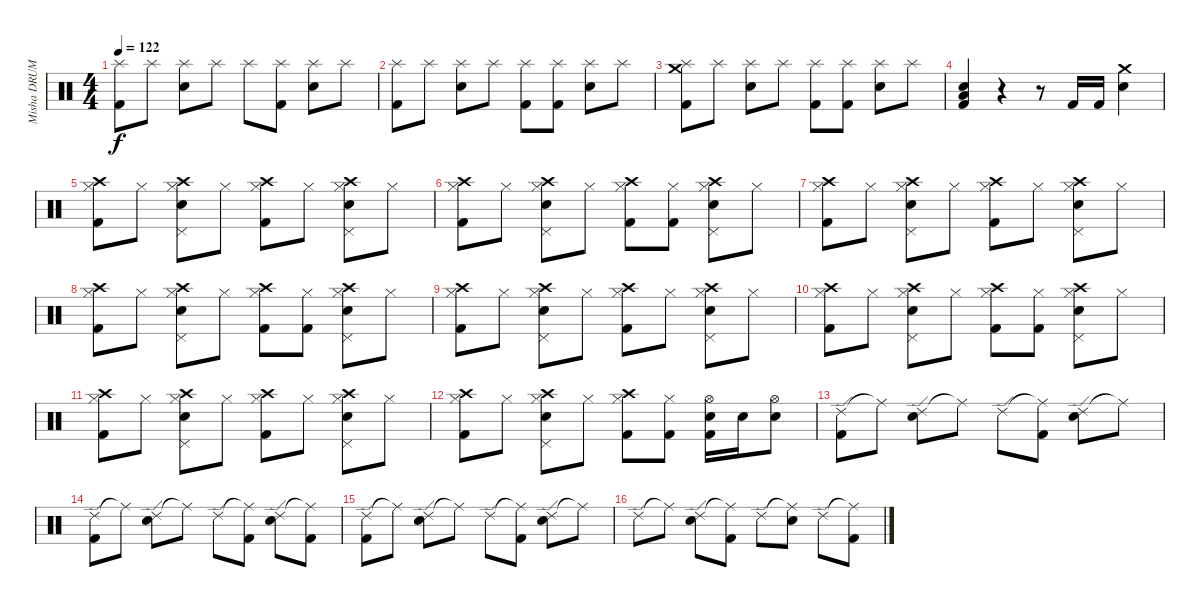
\track ("Misha DRUMS" "Misha DRUM") {instrument percussion}
\staff {score}
\articulation defaults
\ts (4 4)
\tempo 122
\clef neutral
\ks c
("Splash (hit)" "Kick (hit) 2").8{dy f} "Splash (hit)".8 ("Splash (hit)" "Snare (hit) 2").8 "Splash (hit)".8 "Splash (hit)".8 ("Splash (hit)" "Kick (hit) 2").8 ("Splash (hit)" "Snare (hit) 2").8 "Splash (hit)".8 |
("Splash (hit)" "Kick (hit) 2").8 "Splash (hit)".8 ("Splash (hit)" "Snare (hit) 2").8 "Splash (hit)".8 ("Splash (hit)" "Kick (hit) 2").8 ("Splash (hit)" "Kick (hit) 2").8 ("Splash (hit)" "Snare (hit) 2").8 "Splash (hit)".8 |
("Splash (hit)" "Crash medium (hit)" "Kick (hit) 2").8 "Splash (hit)".8 ("Splash (hit)" "Snare (hit) 2").8 "Splash (hit)".8 ("Splash (hit)" "Kick (hit) 2").8 ("Splash (hit)" "Kick (hit) 2").8 ("Splash (hit)" "Snare (hit) 2").8 "Splash (hit)".8 |
("Low Floor Tom (hit)" "Snare (hit) 2" "Kick (hit) 2").4 r.4 r.8 "Kick (hit) 2".16 "Kick (hit) 2".16 ("Crash medium (hit)" "Snare (hit) 2").4 |
("Hi-Hat (closed)" "Crash high (hit)" "Kick (hit) 2").8 "Hi-Hat (closed)".8 ("Hi-Hat (closed)" "Crash high (hit)" "Pedal Hi-Hat (hit)" "Snare (hit) 2").8 "Hi-Hat (closed)".8 ("Hi-Hat (closed)" "Crash high (hit)" "Kick (hit) 2").8 "Hi-Hat (closed)".8 ("Hi-Hat (closed)" "Crash high (hit)" "Pedal Hi-Hat (hit)" "Snare (hit) 2").8 "Hi-Hat (closed)".8 |
("Hi-Hat (closed)" "Crash high (hit)" "Kick (hit) 2").8 "Hi-Hat (closed)".8 ("Hi-Hat (closed)" "Crash high (hit)" "Pedal Hi-Hat (hit)" "Snare (hit) 2").8 "Hi-Hat (closed)".8 ("Hi-Hat (closed)" "Crash high (hit)" "Kick (hit) 2").8 ("Hi-Hat (closed)" "Kick (hit) 2").8 ("Hi-Hat (closed)" "Crash high (hit)" "Pedal Hi-Hat (hit)" "Snare (hit) 2").8 "Hi-Hat (closed)".8 |
("Hi-Hat (closed)" "Crash high (hit)" "Kick (hit) 2").8 "Hi-Hat (closed)".8 ("Hi-Hat (closed)" "Crash high (hit)" "Pedal Hi-Hat (hit)" "Snare (hit) 2").8 "Hi-Hat (closed)".8 ("Hi-Hat (closed)" "Crash high (hit)" "Kick (hit) 2").8 "Hi-Hat (closed)".8 ("Hi-Hat (closed)" "Crash high (hit)" "Pedal Hi-Hat (hit)" "Snare (hit) 2").8 "Hi-Hat (closed)".8 |
("Hi-Hat (closed)" "Crash high (hit)" "Kick (hit) 2").8 "Hi-Hat (closed)".8 ("Hi-Hat (closed)" "Crash high (hit)" "Pedal Hi-Hat (hit)" "Snare (hit) 2").8 "Hi-Hat (closed)".8 ("Hi-Hat (closed)" "Crash high (hit)" "Kick (hit) 2").8 ("Hi-Hat (closed)" "Kick (hit) 2").8 ("Hi-Hat (closed)" "Crash high (hit)" "Pedal Hi-Hat (hit)" "Snare (hit) 2").8 "Hi-Hat (closed)".8 |
("Hi-Hat (closed)" "Crash high (hit)" "Kick (hit) 2").8 "Hi-Hat (closed)".8 ("Hi-Hat (closed)" "Crash high (hit)" "Pedal Hi-Hat (hit)" "Snare (hit) 2").8 "Hi-Hat (closed)".8 ("Hi-Hat (closed)" "Crash high (hit)" "Kick (hit) 2").8 "Hi-Hat (closed)".8 ("Hi-Hat (closed)" "Crash high (hit)" "Pedal Hi-Hat (hit)" "Snare (hit) 2").8 "Hi-Hat (closed)".8 |
("Hi-Hat (closed)" "Crash high (hit)" "Kick (hit) 2").8 "Hi-Hat (closed)".8 ("Hi-Hat (closed)" "Crash high (hit)" "Pedal Hi-Hat (hit)" "Snare (hit) 2").8 "Hi-Hat (closed)".8 ("Hi-Hat (closed)" "Crash high (hit)" "Kick (hit) 2").8 ("Hi-Hat (closed)" "Kick (hit) 2").8 ("Hi-Hat (closed)" "Crash high (hit)" "Pedal Hi-Hat (hit)" "Snare (hit) 2").8 "Hi-Hat (closed)".8 |
("Hi-Hat (closed)" "Crash high (hit)" "Kick (hit) 2").8 "Hi-Hat (closed)".8 ("Hi-Hat (closed)" "Crash high (hit)" "Pedal Hi-Hat (hit)" "Snare (hit) 2").8 "Hi-Hat (closed)".8 ("Hi-Hat (closed)" "Crash high (hit)" "Kick (hit) 2").8 "Hi-Hat (closed)".8 ("Hi-Hat (closed)" "Crash high (hit)" "Pedal Hi-Hat (hit)" "Snare (hit) 2").8 "Hi-Hat (closed)".8 |
("Hi-Hat (closed)" "Crash high (hit)" "Kick (hit) 2").8 "Hi-Hat (closed)".8 ("Hi-Hat (closed)" "Crash high (hit)" "Pedal Hi-Hat (hit)" "Snare (hit) 2").8 "Hi-Hat (closed)".8 ("Hi-Hat (closed)" "Crash high (hit)" "Kick (hit) 2").8 ("Hi-Hat (closed)" "Kick (hit) 2").8 ("Hi-Hat (open)" "Snare (hit) 2" "Kick (hit) 2").16 "Snare (hit) 2".16 ("Hi-Hat (open)" "Snare (hit) 2").8 |
("Ride (edge) 2" "Kick (hit) 2").8 "Ride (middle)"{t}.8 ("Ride (edge) 2" "Snare (hit) 2").8 "Ride (middle)"{t}.8 "Ride (edge) 2".8 ("Ride (middle)"{t} "Kick (hit) 2").8 ("Ride (edge) 2" "Snare (hit) 2").8 "Ride (middle)"{t}.8 |
("Ride (edge) 2" "Kick (hit) 2").8 "Ride (middle)"{t}.8 ("Ride (edge) 2" "Snare (hit) 2").8 "Ride (middle)"{t}.8 "Ride (edge) 2".8 ("Ride (middle)"{t} "Kick (hit) 2").8 ("Ride (edge) 2" "Snare (hit) 2").8 ("Ride (middle)"{t} "Kick (hit) 2").8 |
("Ride (edge) 2" "Kick (hit) 2").8 "Ride (middle)"{t}.8 ("Ride (edge) 2" "Snare (hit) 2").8 "Ride (middle)"{t}.8 "Ride (edge) 2".8 ("Ride (middle)"{t} "Kick (hit) 2").8 ("Ride (edge) 2" "Snare (hit) 2").8 "Ride (middle)"{t}.8 |
"Ride (edge) 2".8 "Ride (middle)"{t}.8 ("Ride (edge) 2" "Snare (hit) 2").8 ("Ride (middle)"{t} "Kick (hit) 2").8 "Ride (edge) 2".8 ("Ride (middle)"{t} "Snare (hit) 2").8 "Ride (edge) 2".8 ("Ride (middle)"{t} "Kick (hit) 2").8
